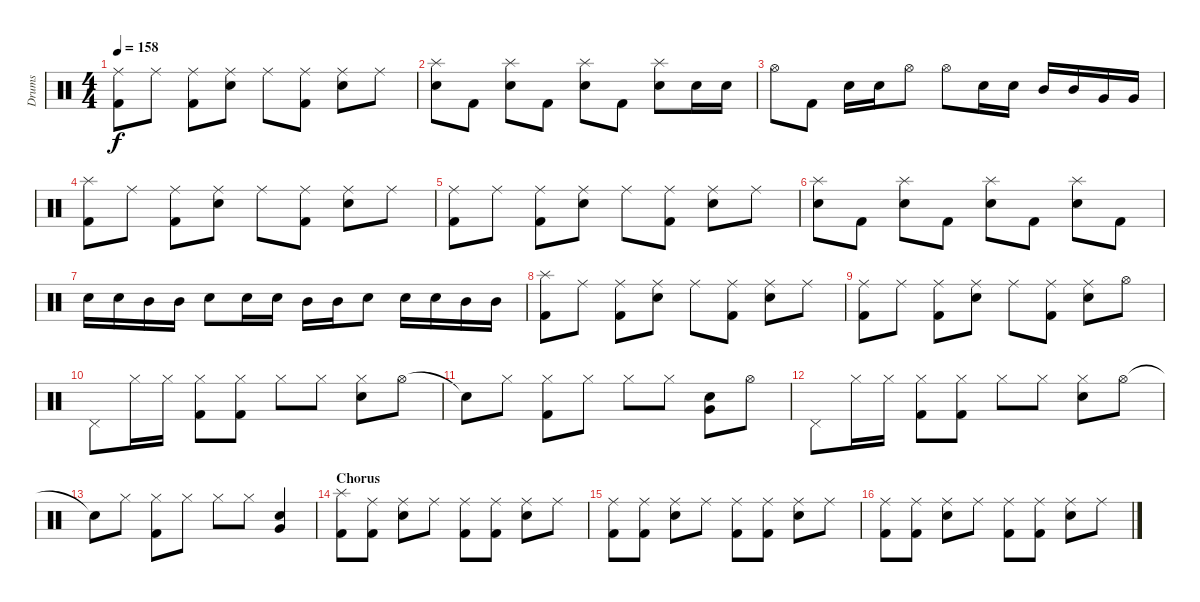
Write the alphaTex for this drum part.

\track ("Drums" "Drums") {instrument percussion}
\staff {score}
\articulation defaults
\ts (4 4)
\tempo 158
\clef neutral
\ks c
("Ride (middle)" "Kick (hit) 2").8{dy f} "Ride (middle)".8 ("Ride (middle)" "Kick (hit) 2").8 ("Ride (middle)" "Electric Snare (hit)").8 "Ride (middle)".8 ("Ride (middle)" "Kick (hit) 2").8 ("Ride (middle)" "Electric Snare (hit)").8 "Ride (middle)".8 |
("Splash (hit)" "Electric Snare (hit)").8 "Kick (hit) 2".8 ("Splash (hit)" "Electric Snare (hit)").8 "Kick (hit) 2".8 ("Splash (hit)" "Electric Snare (hit)").8 "Kick (hit) 2".8 ("Splash (hit)" "Electric Snare (hit)").8 "Electric Snare (hit)".16 "Electric Snare (hit)".16 |
"Hi-Hat (open)".8 "Kick (hit) 2".8 "Electric Snare (hit)".16 "Electric Snare (hit)".16 "Hi-Hat (open)".8 "Hi-Hat (open)".8 "Electric Snare (hit)".16 "Electric Snare (hit)".16 "Mid Tom (hit)".16 "Mid Tom (hit)".16 "Very Low Tom (hit)".16 "Very Low Tom (hit)".16 |
("Splash (hit)" "Kick (hit) 2").8 "Ride (middle)".8 ("Ride (middle)" "Kick (hit) 2").8 ("Ride (middle)" "Electric Snare (hit)").8 "Ride (middle)".8 ("Ride (middle)" "Kick (hit) 2").8 ("Ride (middle)" "Electric Snare (hit)").8 "Ride (middle)".8 |
("Ride (middle)" "Kick (hit) 2").8 "Ride (middle)".8 ("Ride (middle)" "Kick (hit) 2").8 ("Ride (middle)" "Electric Snare (hit)").8 "Ride (middle)".8 ("Ride (middle)" "Kick (hit) 2").8 ("Ride (middle)" "Electric Snare (hit)").8 "Ride (middle)".8 |
("Splash (hit)" "Electric Snare (hit)").8 "Kick (hit) 2".8 ("Splash (hit)" "Electric Snare (hit)").8 "Kick (hit) 2".8 ("Splash (hit)" "Electric Snare (hit)").8 "Kick (hit) 2".8 ("Splash (hit)" "Electric Snare (hit)").8 "Kick (hit) 2".8 |
"Electric Snare (hit)".16 "Electric Snare (hit)".16 "Mid Tom (hit)".16 "Mid Tom (hit)".16 "Electric Snare (hit)".8 "Electric Snare (hit)".16 "Electric Snare (hit)".16 "Mid Tom (hit)".16 "Mid Tom (hit)".16 "Electric Snare (hit)".8 "Electric Snare (hit)".16 "Electric Snare (hit)".16 "Mid Tom (hit)".16 "Mid Tom (hit)".16 |
("Splash (hit)" "Kick (hit) 2").8 "Ride (middle)".8 ("Ride (middle)" "Kick (hit) 2").8 ("Ride (middle)" "Electric Snare (hit)").8 "Ride (middle)".8 ("Ride (middle)" "Kick (hit) 2").8 ("Ride (middle)" "Electric Snare (hit)").8 "Ride (middle)".8 |
("Ride (middle)" "Kick (hit) 2").8 "Ride (middle)".8 ("Ride (middle)" "Kick (hit) 2").8 ("Ride (middle)" "Electric Snare (hit)").8 "Ride (middle)".8 ("Ride (middle)" "Kick (hit) 2").8 ("Ride (middle)" "Electric Snare (hit)").8 "Hi-Hat (open)".8 |
"Pedal Hi-Hat (hit)".8 "Hi-Hat (closed)".16 "Hi-Hat (closed)".16 ("Hi-Hat (closed)" "Kick (hit) 2").8 ("Hi-Hat (closed)" "Kick (hit) 2").8 "Hi-Hat (closed)".8 "Hi-Hat (closed)".8 ("Hi-Hat (closed)" "Electric Snare (hit)").8 "Hi-Hat (open)".8 |
"Snare (hit)"{t}.8 "Hi-Hat (closed)".8 ("Hi-Hat (closed)" "Kick (hit) 2").8 "Hi-Hat (closed)".8 "Hi-Hat (closed)".8 "Hi-Hat (closed)".8 ("Very Low Tom (hit)" "Electric Snare (hit)").8 "Hi-Hat (open)".8 |
"Pedal Hi-Hat (hit)".8 "Hi-Hat (closed)".16 "Hi-Hat (closed)".16 ("Hi-Hat (closed)" "Kick (hit) 2").8 ("Hi-Hat (closed)" "Kick (hit) 2").8 "Hi-Hat (closed)".8 "Hi-Hat (closed)".8 ("Hi-Hat (closed)" "Electric Snare (hit)").8 "Hi-Hat (open)".8 |
"Snare (hit)"{t}.8 "Hi-Hat (closed)".8 ("Hi-Hat (closed)" "Kick (hit) 2").8 "Hi-Hat (closed)".8 "Hi-Hat (closed)".8 "Hi-Hat (closed)".8 ("Very Low Tom (hit)" "Electric Snare (hit)").4 |
\section ("" "Chorus")
("Splash (hit)" "Kick (hit) 2").8 ("Ride (middle)" "Kick (hit) 2").8 ("Ride (middle)" "Electric Snare (hit)").8 "Ride (middle)".8 ("Ride (middle)" "Kick (hit) 2").8 ("Ride (middle)" "Kick (hit) 2").8 ("Ride (middle)" "Electric Snare (hit)").8 "Ride (middle)".8 |
("Ride (middle)" "Kick (hit) 2").8 ("Ride (middle)" "Kick (hit) 2").8 ("Ride (middle)" "Electric Snare (hit)").8 "Ride (middle)".8 ("Ride (middle)" "Kick (hit) 2").8 ("Ride (middle)" "Kick (hit) 2").8 ("Ride (middle)" "Electric Snare (hit)").8 "Ride (middle)".8 |
("Ride (middle)" "Kick (hit) 2").8 ("Ride (middle)" "Kick (hit) 2").8 ("Ride (middle)" "Electric Snare (hit)").8 "Ride (middle)".8 ("Ride (middle)" "Kick (hit) 2").8 ("Ride (middle)" "Kick (hit) 2").8 ("Ride (middle)" "Electric Snare (hit)").8 "Ride (middle)".8
